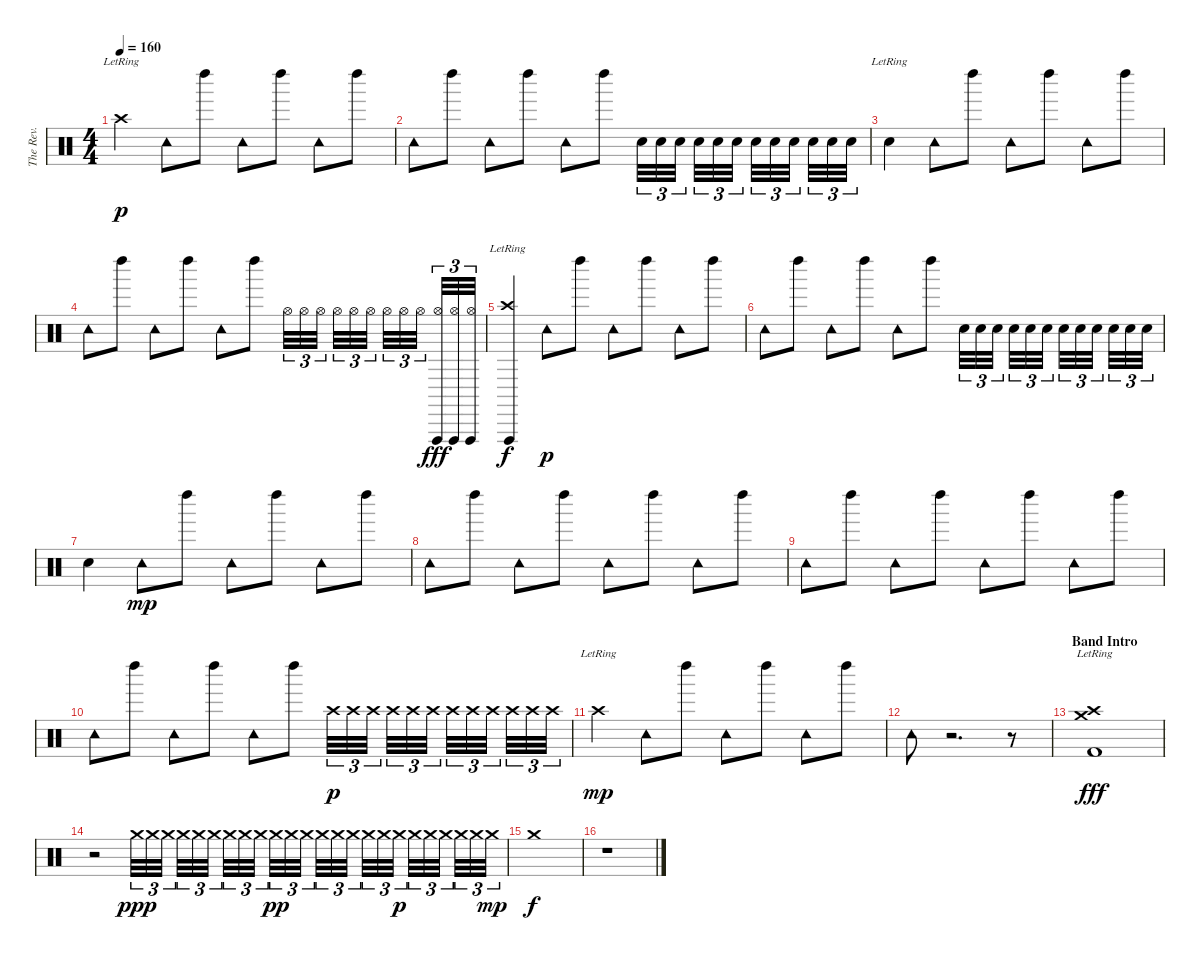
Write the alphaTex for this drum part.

\track ("The Rev." "The Rev.") {instrument percussion}
\staff {score}
\articulation defaults
\ts (4 4)
\tempo 160
\clef neutral
\ks c "Crash high (hit)"{lr}.4{dy p} "Tambourine (hit)".8 "Left Maraca (hit)".8 "Tambourine (hit)".8 "Left Maraca (hit)".8 "Tambourine (hit)".8 "Left Maraca (hit)".8
|
"Tambourine (hit)".8 "Left Maraca (hit)".8 "Tambourine (hit)".8 "Left Maraca (hit)".8 "Tambourine (hit)".8 "Left Maraca (hit)".8 "Electric Snare (hit)".32{tu (3 2)} "Electric Snare (hit)".32{tu (3 2)} "Electric Snare (hit)".32{tu (3 2)} "Electric Snare (hit)".32{tu (3 2)} "Electric Snare (hit)".32{tu (3 2)} "Electric Snare (hit)".32{tu (3 2)} "Electric Snare (hit)".32{tu (3 2)} "Electric Snare (hit)".32{tu (3 2)} "Electric Snare (hit)".32{tu (3 2)} "Electric Snare (hit)".32{tu (3 2)} "Electric Snare (hit)".32{tu (3 2)} "Electric Snare (hit)".32{tu (3 2)} |
"Electric Snare (hit)"{lr}.4 "Tambourine (hit)".8 "Left Maraca (hit)".8 "Tambourine (hit)".8 "Left Maraca (hit)".8 "Tambourine (hit)".8 "Left Maraca (hit)".8 |
"Tambourine (hit)".8 "Left Maraca (hit)".8 "Tambourine (hit)".8 "Left Maraca (hit)".8 "Tambourine (hit)".8 "Left Maraca (hit)".8 "Hi-Hat (open)".32{tu (3 2)} "Hi-Hat (open)".32{tu (3 2)} "Hi-Hat (open)".32{tu (3 2)} "Hi-Hat (open)".32{tu (3 2)} "Hi-Hat (open)".32{tu (3 2)} "Hi-Hat (open)".32{tu (3 2)} "Hi-Hat (open)".32{tu (3 2)} "Hi-Hat (open)".32{tu (3 2)} "Hi-Hat (open)".32{tu (3 2)} ("Hi-Hat (open)" "Vibraslap (hit)").32{tu (3 2) dy fff} ("Hi-Hat (open)" "Vibraslap (hit)").32{tu (3 2)} ("Hi-Hat (open)" "Vibraslap (hit)").32{tu (3 2)} |
("Crash high (hit)"{lr} "Vibraslap (hit)"{lr}).4{dy f} "Tambourine (hit)".8{dy p} "Left Maraca (hit)".8 "Tambourine (hit)".8 "Left Maraca (hit)".8 "Tambourine (hit)".8 "Left Maraca (hit)".8 |
"Tambourine (hit)".8 "Left Maraca (hit)".8 "Tambourine (hit)".8 "Left Maraca (hit)".8 "Tambourine (hit)".8 "Left Maraca (hit)".8 "Electric Snare (hit)".32{tu (3 2)} "Electric Snare (hit)".32{tu (3 2)} "Electric Snare (hit)".32{tu (3 2)} "Electric Snare (hit)".32{tu (3 2)} "Electric Snare (hit)".32{tu (3 2)} "Electric Snare (hit)".32{tu (3 2)} "Electric Snare (hit)".32{tu (3 2)} "Electric Snare (hit)".32{tu (3 2)} "Electric Snare (hit)".32{tu (3 2)} "Electric Snare (hit)".32{tu (3 2)} "Electric Snare (hit)".32{tu (3 2)} "Electric Snare (hit)".32{tu (3 2)} |
"Electric Snare (hit)".4 "Tambourine (hit)".8{dy mp} "Left Maraca (hit)".8 "Tambourine (hit)".8 "Left Maraca (hit)".8 "Tambourine (hit)".8 "Left Maraca (hit)".8 |
"Tambourine (hit)".8 "Left Maraca (hit)".8 "Tambourine (hit)".8 "Left Maraca (hit)".8 "Tambourine (hit)".8 "Left Maraca (hit)".8 "Tambourine (hit)".8 "Left Maraca (hit)".8 |
"Tambourine (hit)".8 "Left Maraca (hit)".8 "Tambourine (hit)".8 "Left Maraca (hit)".8 "Tambourine (hit)".8 "Left Maraca (hit)".8 "Tambourine (hit)".8 "Left Maraca (hit)".8 |
"Tambourine (hit)".8 "Left Maraca (hit)".8 "Tambourine (hit)".8 "Left Maraca (hit)".8 "Tambourine (hit)".8 "Left Maraca (hit)".8 "Crash high (hit)".32{tu (3 2) dy p} "Crash high (hit)".32{tu (3 2)} "Crash high (hit)".32{tu (3 2)} "Crash high (hit)".32{tu (3 2)} "Crash high (hit)".32{tu (3 2)} "Crash high (hit)".32{tu (3 2)} "Crash high (hit)".32{tu (3 2)} "Crash high (hit)".32{tu (3 2)} "Crash high (hit)".32{tu (3 2)} "Crash high (hit)".32{tu (3 2)} "Crash high (hit)".32{tu (3 2)} "Crash high (hit)".32{tu (3 2)} |
"Crash high (hit)"{lr}.4{dy mp} "Tambourine (hit)".8 "Left Maraca (hit)".8 "Tambourine (hit)".8 "Left Maraca (hit)".8 "Tambourine (hit)".8 "Left Maraca (hit)".8 |
"Tambourine (hit)".8 r.2{d} r.8 |
\section ("" "Band Intro")
("Kick (hit) 2" "Crash high (hit)"{lr} "Crash medium (hit)"{lr}).1{dy fff} |
r.2 "Crash medium (hit)".32{tu (3 2) dy ppp} "Crash medium (hit)".32{tu (3 2)} "Crash medium (hit)".32{tu (3 2)} "Crash medium (hit)".32{tu (3 2)} "Crash medium (hit)".32{tu (3 2)} "Crash medium (hit)".32{tu (3 2)} "Crash medium (hit)".32{tu (3 2)} "Crash medium (hit)".32{tu (3 2)} "Crash medium (hit)".32{tu (3 2)} "Crash medium (hit)".32{tu (3 2) dy pp} "Crash medium (hit)".32{tu (3 2)} "Crash medium (hit)".32{tu (3 2)} "Crash medium (hit)".32{tu (3 2)} "Crash medium (hit)".32{tu (3 2)} "Crash medium (hit)".32{tu (3 2)} "Crash medium (hit)".32{tu (3 2)} "Crash medium (hit)".32{tu (3 2)} "Crash medium (hit)".32{tu (3 2) dy p} "Crash medium (hit)".32{tu (3 2)} "Crash medium (hit)".32{tu (3 2)} "Crash medium (hit)".32{tu (3 2)} "Crash medium (hit)".32{tu (3 2)} "Crash medium (hit)".32{tu (3 2)} "Crash medium (hit)".32{tu (3 2) dy mp} |
"Crash medium (hit)".1{dy f} |
r.1
